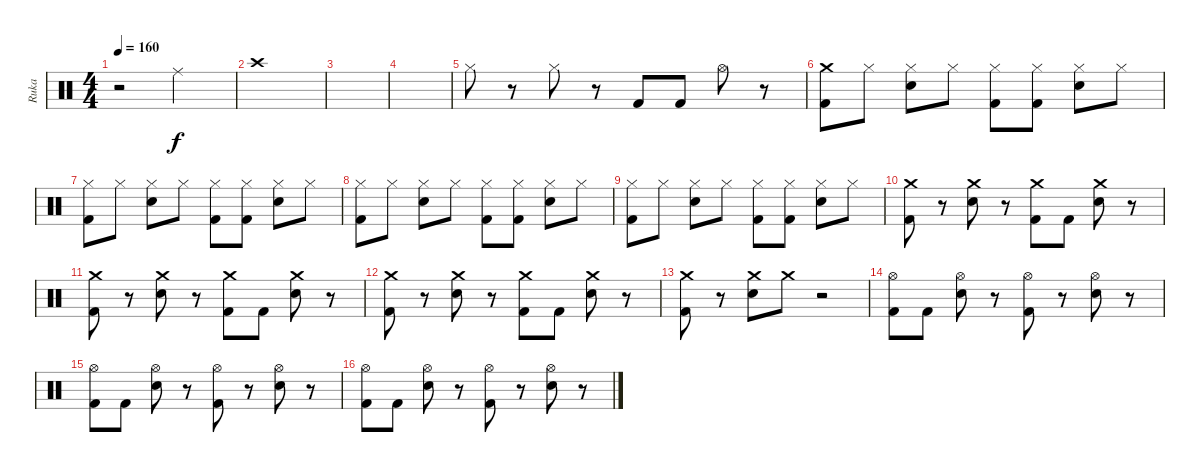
\track ("Ruka" "Ruka") {instrument percussion}
\staff {score}
\articulation defaults
\ts (4 4)
\tempo 160
\clef neutral
\ks c
r.2{dy f} "Ride (middle)".2 |
"Crash high (hit)".1 |
|
|
"Hi-Hat (closed)".8 r.8 "Hi-Hat (closed)".8 r.8 "Kick (hit) 2".8 "Kick (hit) 2".8 "Hi-Hat (open)".8 r.8 |
("Kick (hit) 2" "Crash medium (hit)").8 "Hi-Hat (closed)".8 ("Electric Snare (hit)" "Hi-Hat (closed)").8 "Hi-Hat (closed)".8 ("Kick (hit) 2" "Hi-Hat (closed)").8 ("Kick (hit) 2" "Hi-Hat (closed)").8 ("Electric Snare (hit)" "Hi-Hat (closed)").8 "Hi-Hat (closed)".8 |
("Kick (hit) 2" "Hi-Hat (closed)").8 "Hi-Hat (closed)".8 ("Electric Snare (hit)" "Hi-Hat (closed)").8 "Hi-Hat (closed)".8 ("Kick (hit) 2" "Hi-Hat (closed)").8 ("Kick (hit) 2" "Hi-Hat (closed)").8 ("Electric Snare (hit)" "Hi-Hat (closed)").8 "Hi-Hat (closed)".8 |
("Kick (hit) 2" "Hi-Hat (closed)").8 "Hi-Hat (closed)".8 ("Electric Snare (hit)" "Hi-Hat (closed)").8 "Hi-Hat (closed)".8 ("Kick (hit) 2" "Hi-Hat (closed)").8 ("Kick (hit) 2" "Hi-Hat (closed)").8 ("Electric Snare (hit)" "Hi-Hat (closed)").8 "Hi-Hat (closed)".8 |
("Kick (hit) 2" "Hi-Hat (closed)").8 "Hi-Hat (closed)".8 ("Electric Snare (hit)" "Hi-Hat (closed)").8 "Hi-Hat (closed)".8 ("Kick (hit) 2" "Hi-Hat (closed)").8 ("Kick (hit) 2" "Hi-Hat (closed)").8 ("Electric Snare (hit)" "Hi-Hat (closed)").8 "Hi-Hat (closed)".8 |
("Kick (hit) 2" "Crash medium (hit)").8 r.8 ("Electric Snare (hit)" "Crash medium (hit)").8 r.8 ("Kick (hit) 2" "Crash medium (hit)").8 "Kick (hit) 2".8 ("Electric Snare (hit)" "Crash medium (hit)").8 r.8 |
("Kick (hit) 2" "Crash medium (hit)").8 r.8 ("Electric Snare (hit)" "Crash medium (hit)").8 r.8 ("Kick (hit) 2" "Crash medium (hit)").8 "Kick (hit) 2".8 ("Electric Snare (hit)" "Crash medium (hit)").8 r.8 |
("Kick (hit) 2" "Crash medium (hit)").8 r.8 ("Electric Snare (hit)" "Crash medium (hit)").8 r.8 ("Kick (hit) 2" "Crash medium (hit)").8 "Kick (hit) 2".8 ("Electric Snare (hit)" "Crash medium (hit)").8 r.8 |
("Kick (hit) 2" "Crash medium (hit)").8 r.8 ("Electric Snare (hit)" "Crash medium (hit)").8 "Crash medium (hit)".8 r.2 |
("Kick (hit) 2" "Hi-Hat (open)").8 "Kick (hit) 2".8 ("Electric Snare (hit)" "Hi-Hat (open)").8 r.8 ("Kick (hit) 2" "Hi-Hat (open)").8 r.8 ("Electric Snare (hit)" "Hi-Hat (open)").8 r.8 |
("Kick (hit) 2" "Hi-Hat (open)").8 "Kick (hit) 2".8 ("Electric Snare (hit)" "Hi-Hat (open)").8 r.8 ("Kick (hit) 2" "Hi-Hat (open)").8 r.8 ("Electric Snare (hit)" "Hi-Hat (open)").8 r.8 |
("Kick (hit) 2" "Hi-Hat (open)").8 "Kick (hit) 2".8 ("Electric Snare (hit)" "Hi-Hat (open)").8 r.8 ("Kick (hit) 2" "Hi-Hat (open)").8 r.8 ("Electric Snare (hit)" "Hi-Hat (open)").8 r.8
